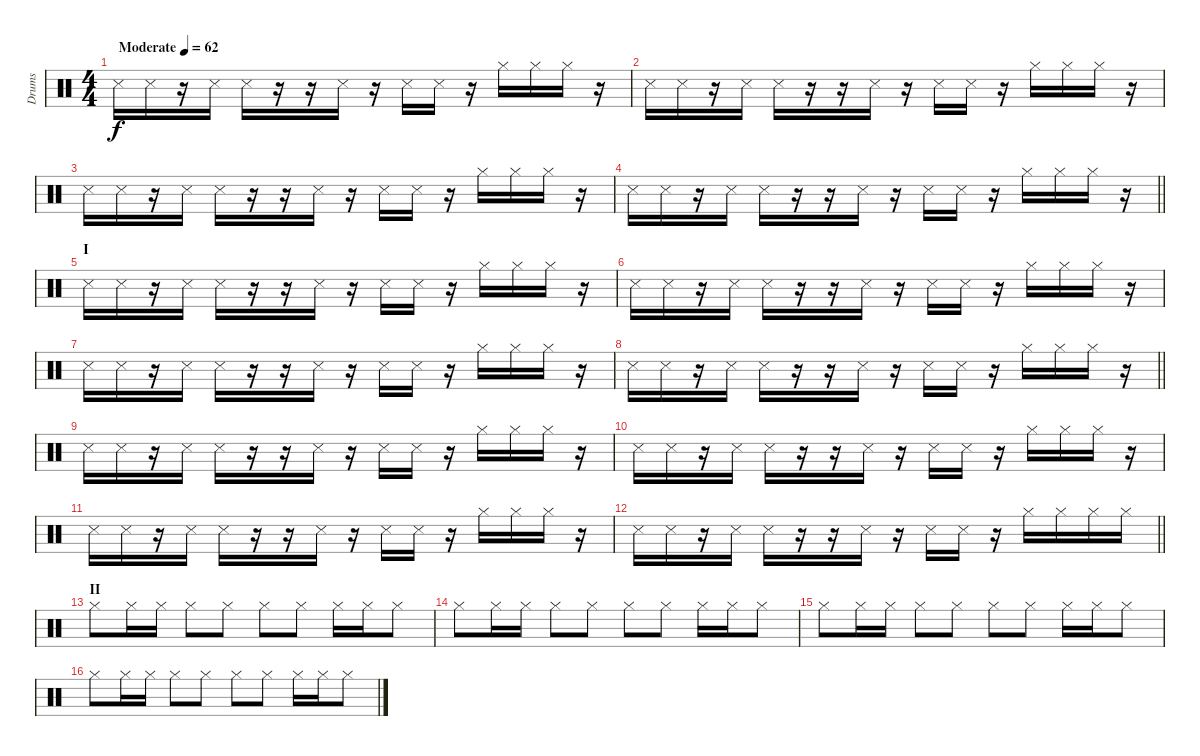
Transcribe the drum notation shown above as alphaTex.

\track ("Drums" "Drums") {instrument percussion}
\staff {score}
\articulation defaults
\ts (4 4)
\tempo (62 "Moderate")
\clef neutral
\ks c "Snare (side stick) 3".16{dy f} "Snare (side stick) 3".16
r.16 "Snare (side stick) 3".16 "Snare (side stick) 3".16 r.16 r.16 "Snare (side stick) 3".16 r.16 "Snare (side stick) 3".16 "Snare (side stick) 3".16 r.16 "Hi-Hat (closed)".16 "Hi-Hat (closed)".16 "Hi-Hat (closed)".16 r.16 |
"Snare (side stick) 3".16 "Snare (side stick) 3".16 r.16 "Snare (side stick) 3".16 "Snare (side stick) 3".16 r.16 r.16 "Snare (side stick) 3".16 r.16 "Snare (side stick) 3".16 "Snare (side stick) 3".16 r.16 "Hi-Hat (closed)".16 "Hi-Hat (closed)".16 "Hi-Hat (closed)".16 r.16 |
"Snare (side stick) 3".16 "Snare (side stick) 3".16 r.16 "Snare (side stick) 3".16 "Snare (side stick) 3".16 r.16 r.16 "Snare (side stick) 3".16 r.16 "Snare (side stick) 3".16 "Snare (side stick) 3".16 r.16 "Hi-Hat (closed)".16 "Hi-Hat (closed)".16 "Hi-Hat (closed)".16 r.16 |
\barLineRight lightlight "Snare (side stick) 3".16 "Snare (side stick) 3".16
r.16 "Snare (side stick) 3".16 "Snare (side stick) 3".16 r.16 r.16 "Snare (side stick) 3".16 r.16 "Snare (side stick) 3".16 "Snare (side stick) 3".16 r.16 "Hi-Hat (closed)".16 "Hi-Hat (closed)".16 "Hi-Hat (closed)".16 r.16 |
\section ("" "I")
"Snare (side stick) 3".16 "Snare (side stick) 3".16 r.16 "Snare (side stick) 3".16 "Snare (side stick) 3".16 r.16 r.16 "Snare (side stick) 3".16 r.16 "Snare (side stick) 3".16 "Snare (side stick) 3".16 r.16 "Hi-Hat (closed)".16 "Hi-Hat (closed)".16 "Hi-Hat (closed)".16 r.16 |
"Snare (side stick) 3".16 "Snare (side stick) 3".16 r.16 "Snare (side stick) 3".16 "Snare (side stick) 3".16 r.16 r.16 "Snare (side stick) 3".16 r.16 "Snare (side stick) 3".16 "Snare (side stick) 3".16 r.16 "Hi-Hat (closed)".16 "Hi-Hat (closed)".16 "Hi-Hat (closed)".16 r.16 |
"Snare (side stick) 3".16 "Snare (side stick) 3".16 r.16 "Snare (side stick) 3".16 "Snare (side stick) 3".16 r.16 r.16 "Snare (side stick) 3".16 r.16 "Snare (side stick) 3".16 "Snare (side stick) 3".16 r.16 "Hi-Hat (closed)".16 "Hi-Hat (closed)".16 "Hi-Hat (closed)".16 r.16 |
\barLineRight lightlight "Snare (side stick) 3".16 "Snare (side stick) 3".16
r.16 "Snare (side stick) 3".16 "Snare (side stick) 3".16 r.16 r.16 "Snare (side stick) 3".16 r.16 "Snare (side stick) 3".16 "Snare (side stick) 3".16 r.16 "Hi-Hat (closed)".16 "Hi-Hat (closed)".16 "Hi-Hat (closed)".16 r.16 |
"Snare (side stick) 3".16 "Snare (side stick) 3".16 r.16 "Snare (side stick) 3".16 "Snare (side stick) 3".16 r.16 r.16 "Snare (side stick) 3".16 r.16 "Snare (side stick) 3".16 "Snare (side stick) 3".16 r.16 "Hi-Hat (closed)".16 "Hi-Hat (closed)".16 "Hi-Hat (closed)".16 r.16 |
"Snare (side stick) 3".16 "Snare (side stick) 3".16 r.16 "Snare (side stick) 3".16 "Snare (side stick) 3".16 r.16 r.16 "Snare (side stick) 3".16 r.16 "Snare (side stick) 3".16 "Snare (side stick) 3".16 r.16 "Hi-Hat (closed)".16 "Hi-Hat (closed)".16 "Hi-Hat (closed)".16 r.16 |
"Snare (side stick) 3".16 "Snare (side stick) 3".16 r.16 "Snare (side stick) 3".16 "Snare (side stick) 3".16 r.16 r.16 "Snare (side stick) 3".16 r.16 "Snare (side stick) 3".16 "Snare (side stick) 3".16 r.16 "Hi-Hat (closed)".16 "Hi-Hat (closed)".16 "Hi-Hat (closed)".16 r.16 |
\barLineRight lightlight "Snare (side stick) 3".16 "Snare (side stick) 3".16
r.16 "Snare (side stick) 3".16 "Snare (side stick) 3".16 r.16 r.16 "Snare (side stick) 3".16 r.16 "Snare (side stick) 3".16 "Snare (side stick) 3".16 r.16 "Hi-Hat (closed)".16 "Hi-Hat (closed)".16 "Hi-Hat (closed)".16 "Hi-Hat (closed)".16 |
\section ("" "II")
"Hi-Hat (closed)".8 "Hi-Hat (closed)".16 "Hi-Hat (closed)".16 "Hi-Hat (closed)".8 "Hi-Hat (closed)".8 "Hi-Hat (closed)".8 "Hi-Hat (closed)".8 "Hi-Hat (closed)".16 "Hi-Hat (closed)".16 "Hi-Hat (closed)".8 |
"Hi-Hat (closed)".8 "Hi-Hat (closed)".16 "Hi-Hat (closed)".16 "Hi-Hat (closed)".8 "Hi-Hat (closed)".8 "Hi-Hat (closed)".8 "Hi-Hat (closed)".8 "Hi-Hat (closed)".16 "Hi-Hat (closed)".16 "Hi-Hat (closed)".8 |
"Hi-Hat (closed)".8 "Hi-Hat (closed)".16 "Hi-Hat (closed)".16 "Hi-Hat (closed)".8 "Hi-Hat (closed)".8 "Hi-Hat (closed)".8 "Hi-Hat (closed)".8 "Hi-Hat (closed)".16 "Hi-Hat (closed)".16 "Hi-Hat (closed)".8 |
"Hi-Hat (closed)".8 "Hi-Hat (closed)".16 "Hi-Hat (closed)".16 "Hi-Hat (closed)".8 "Hi-Hat (closed)".8 "Hi-Hat (closed)".8 "Hi-Hat (closed)".8 "Hi-Hat (closed)".16 "Hi-Hat (closed)".16 "Hi-Hat (closed)".8
